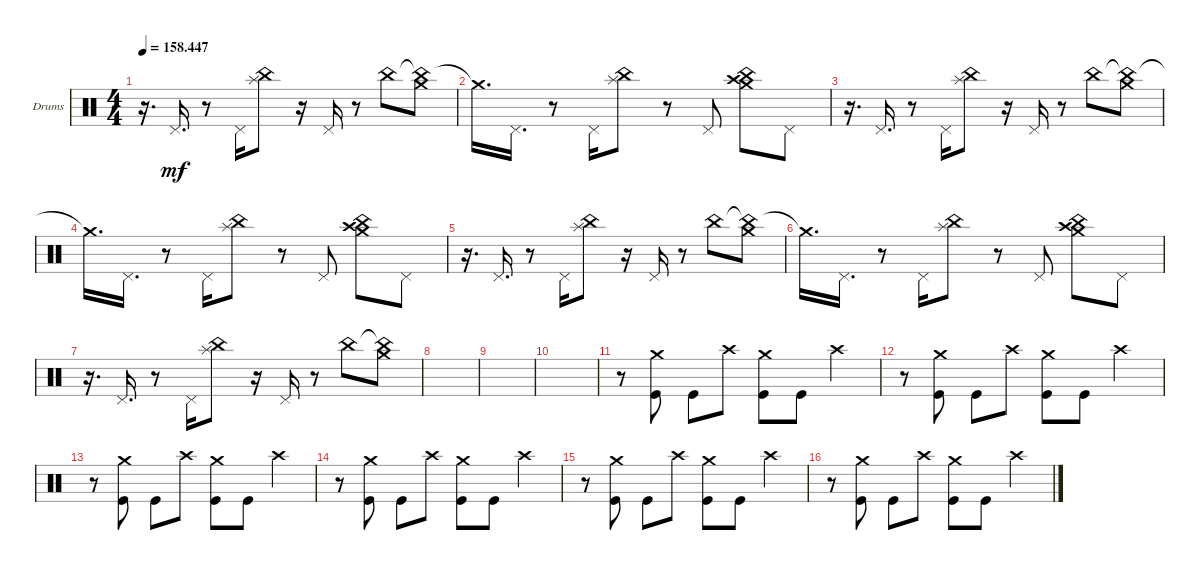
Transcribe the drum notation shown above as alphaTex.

\defaultSystemsLayout 4
\bracketExtendMode groupsimilarinstruments
\firstSystemTrackNameOrientation horizontal
\otherSystemsTrackNameOrientation horizontal
\track ("Drumkit" "Drums") {instrument percussion}
\staff {score}
\articulation defaults
\ts (4 4)
\tempo
158.447
\accidentals auto
\clef neutral
\ottava regular
\simile none
\ks c
r.16{d dy mf} "Pedal Hi-Hat (hit)".16{d} r.8 "Pedal Hi-Hat (hit)".16 ("China (hit)" "Splash (hit)").8 r.16 "Pedal Hi-Hat (hit)".16 r.8 "China (hit)".8 ("China (hit)"{t} "Crash medium (hit)").8 |
"Crash medium (hit)"{t}.16{d} "Pedal Hi-Hat (hit)".16{d} r.8 "Pedal Hi-Hat (hit)".16 ("China (hit)" "Splash (hit)").8 r.8 "Pedal Hi-Hat (hit)".8 ("China (hit)" "Crash medium (hit)" "Crash high (hit)").8 "Pedal Hi-Hat (hit)".8 |
r.16{d} "Pedal Hi-Hat (hit)".16{d} r.8 "Pedal Hi-Hat (hit)".16 ("China (hit)" "Splash (hit)").8 r.16 "Pedal Hi-Hat (hit)".16 r.8 "China (hit)".8 ("China (hit)"{t} "Crash medium (hit)").8 |
"Crash medium (hit)"{t}.16{d} "Pedal Hi-Hat (hit)".16{d} r.8 "Pedal Hi-Hat (hit)".16 ("China (hit)" "Splash (hit)").8 r.8 "Pedal Hi-Hat (hit)".8 ("China (hit)" "Crash medium (hit)" "Crash high (hit)").8 "Pedal Hi-Hat (hit)".8 |
r.16{d} "Pedal Hi-Hat (hit)".16{d} r.8 "Pedal Hi-Hat (hit)".16 ("China (hit)" "Splash (hit)").8 r.16 "Pedal Hi-Hat (hit)".16 r.8 "China (hit)".8 ("China (hit)"{t} "Crash medium (hit)").8 |
"Crash medium (hit)"{t}.16{d} "Pedal Hi-Hat (hit)".16{d} r.8 "Pedal Hi-Hat (hit)".16 ("China (hit)" "Splash (hit)").8 r.8 "Pedal Hi-Hat (hit)".8 ("China (hit)" "Crash medium (hit)" "Crash high (hit)").8 "Pedal Hi-Hat (hit)".8 |
r.16{d} "Pedal Hi-Hat (hit)".16{d} r.8 "Pedal Hi-Hat (hit)".16 ("China (hit)" "Splash (hit)").8 r.16 "Pedal Hi-Hat (hit)".16 r.8 "China (hit)".8 ("China (hit)"{t} "Crash medium (hit)").8 |
|
|
|
r.8 ("Kick (hit)" "Crash medium (hit)").8 "Kick (hit)".8 "Crash high (hit)".8 ("Kick (hit)" "Crash medium (hit)").8 "Kick (hit)".8 "Crash high (hit)".4 |
r.8 ("Kick (hit)" "Crash medium (hit)").8 "Kick (hit)".8 "Crash high (hit)".8 ("Kick (hit)" "Crash medium (hit)").8 "Kick (hit)".8 "Crash high (hit)".4 |
r.8 ("Kick (hit)" "Crash medium (hit)").8 "Kick (hit)".8 "Crash high (hit)".8 ("Kick (hit)" "Crash medium (hit)").8 "Kick (hit)".8 "Crash high (hit)".4 |
r.8 ("Kick (hit)" "Crash medium (hit)").8 "Kick (hit)".8 "Crash high (hit)".8 ("Kick (hit)" "Crash medium (hit)").8 "Kick (hit)".8 "Crash high (hit)".4 |
r.8 ("Kick (hit)" "Crash medium (hit)").8 "Kick (hit)".8 "Crash high (hit)".8 ("Kick (hit)" "Crash medium (hit)").8 "Kick (hit)".8 "Crash high (hit)".4 |
r.8 ("Kick (hit)" "Crash medium (hit)").8 "Kick (hit)".8 "Crash high (hit)".8 ("Kick (hit)" "Crash medium (hit)").8 "Kick (hit)".8 "Crash high (hit)".4
